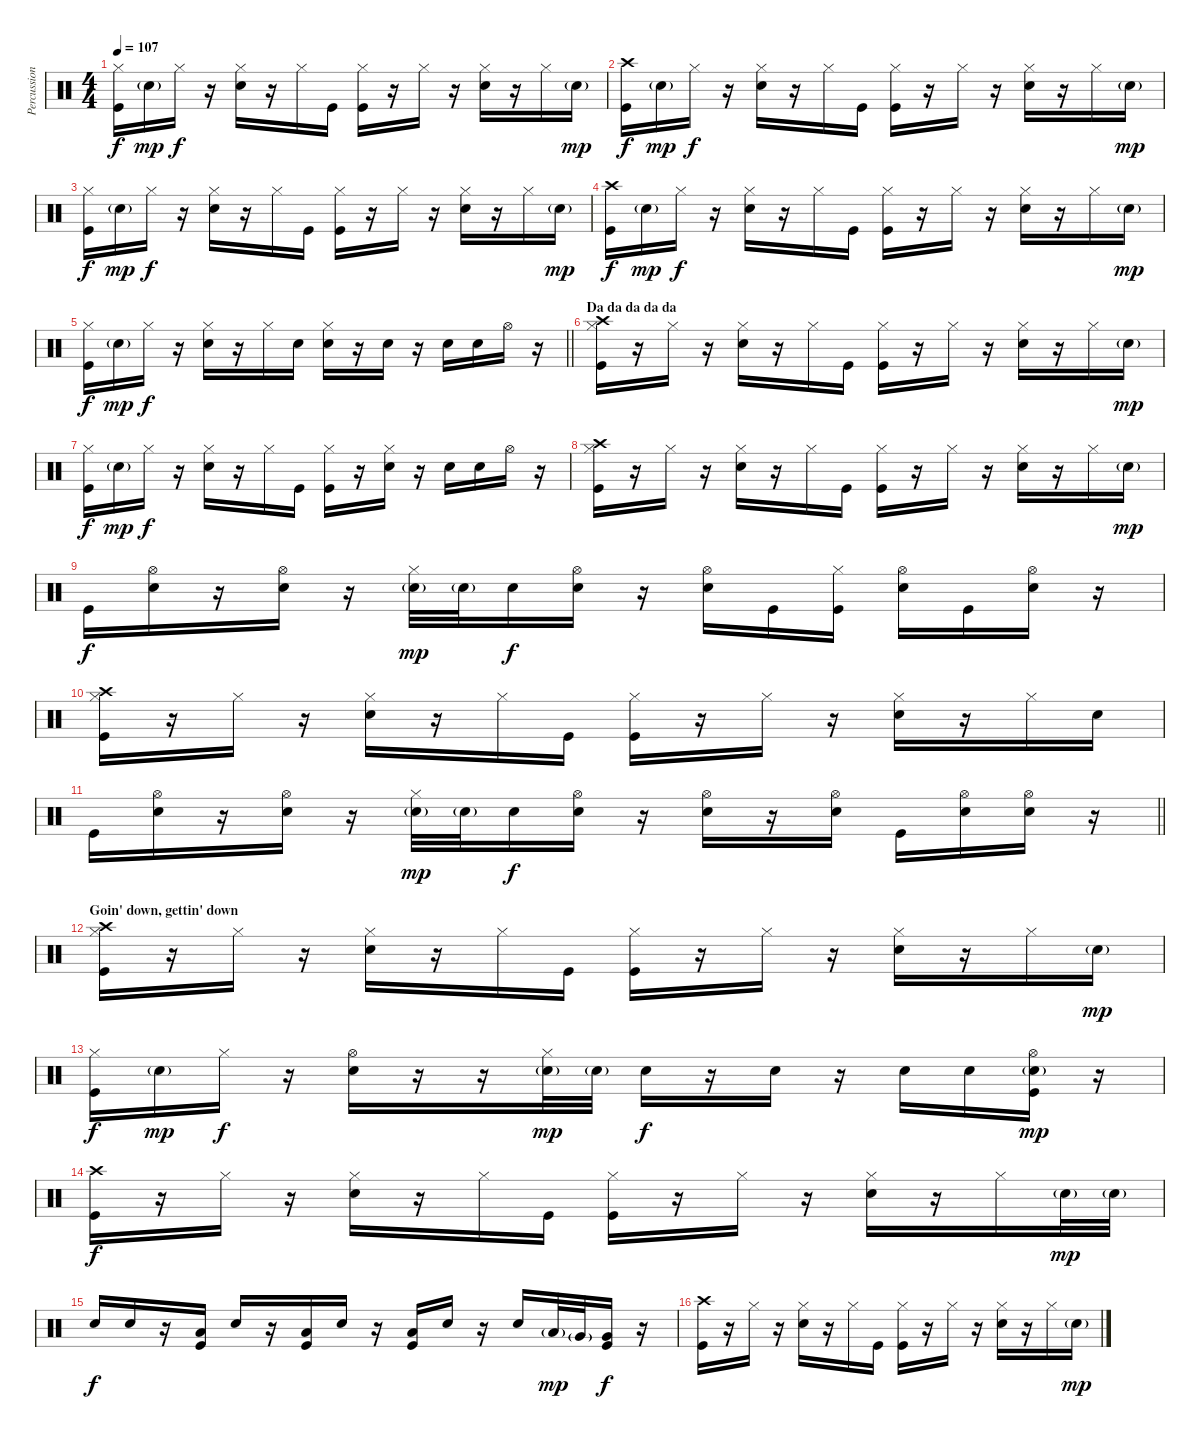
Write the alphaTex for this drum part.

\track ("Percussion" "Percussion") {instrument percussion}
\staff {score}
\articulation defaults
\ts (4 4)
\tempo 107
\clef neutral
\ks c
("Hi-Hat (closed)" "Kick (hit)").16{dy f} "Snare (hit) 2"{g}.16{dy mp} "Hi-Hat (closed)".16{dy f} r.16 ("Hi-Hat (closed)" "Snare (hit) 2").16 r.16 "Hi-Hat (closed)".16 "Kick (hit)".16 ("Hi-Hat (closed)" "Kick (hit)").16 r.16 "Hi-Hat (closed)".16 r.16 ("Hi-Hat (closed)" "Snare (hit) 2").16 r.16 "Hi-Hat (closed)".16 "Snare (hit) 2"{g}.16{dy mp} |
("Crash high (hit)" "Kick (hit)").16{dy f} "Snare (hit) 2"{g}.16{dy mp} "Hi-Hat (closed)".16{dy f} r.16 ("Hi-Hat (closed)" "Snare (hit) 2").16 r.16 "Hi-Hat (closed)".16 "Kick (hit)".16 ("Hi-Hat (closed)" "Kick (hit)").16 r.16 "Hi-Hat (closed)".16 r.16 ("Hi-Hat (closed)" "Snare (hit) 2").16 r.16 "Hi-Hat (closed)".16 "Snare (hit) 2"{g}.16{dy mp} |
("Hi-Hat (closed)" "Kick (hit)").16{dy f} "Snare (hit) 2"{g}.16{dy mp} "Hi-Hat (closed)".16{dy f} r.16 ("Hi-Hat (closed)" "Snare (hit) 2").16 r.16 "Hi-Hat (closed)".16 "Kick (hit)".16 ("Hi-Hat (closed)" "Kick (hit)").16 r.16 "Hi-Hat (closed)".16 r.16 ("Hi-Hat (closed)" "Snare (hit) 2").16 r.16 "Hi-Hat (closed)".16 "Snare (hit) 2"{g}.16{dy mp} |
("Crash high (hit)" "Kick (hit)").16{dy f} "Snare (hit) 2"{g}.16{dy mp} "Hi-Hat (closed)".16{dy f} r.16 ("Hi-Hat (closed)" "Snare (hit) 2").16 r.16 "Hi-Hat (closed)".16 "Kick (hit)".16 ("Hi-Hat (closed)" "Kick (hit)").16 r.16 "Hi-Hat (closed)".16 r.16 ("Hi-Hat (closed)" "Snare (hit) 2").16 r.16 "Hi-Hat (closed)".16 "Snare (hit) 2"{g}.16{dy mp} |
\barLineRight lightlight
("Hi-Hat (closed)" "Kick (hit)").16{dy f} "Snare (hit) 2"{g}.16{dy mp} "Hi-Hat (closed)".16{dy f} r.16 ("Hi-Hat (closed)" "Snare (hit) 2").16 r.16 "Hi-Hat (closed)".16 "Snare (hit) 2".16 ("Hi-Hat (closed)" "Snare (hit) 2").16 r.16 "Snare (hit) 2".16 r.16 "Snare (hit) 2".16 "Snare (hit) 2".16 "Hi-Hat (open)".16 r.16 |
\section ("" "Da da da da da")
("Crash high (hit)" "Hi-Hat (closed)" "Kick (hit)").16 r.16 "Hi-Hat (closed)".16 r.16 ("Hi-Hat (closed)" "Snare (hit) 2").16 r.16 "Hi-Hat (closed)".16 "Kick (hit)".16 ("Hi-Hat (closed)" "Kick (hit)").16 r.16 "Hi-Hat (closed)".16 r.16 ("Hi-Hat (closed)" "Snare (hit) 2").16 r.16 "Hi-Hat (closed)".16 "Snare (hit) 2"{g}.16{dy mp} |
("Hi-Hat (closed)" "Kick (hit)").16{dy f} "Snare (hit) 2"{g}.16{dy mp} "Hi-Hat (closed)".16{dy f} r.16 ("Hi-Hat (closed)" "Snare (hit) 2").16 r.16 "Hi-Hat (closed)".16 "Kick (hit)".16 ("Hi-Hat (closed)" "Kick (hit)").16 r.16 ("Hi-Hat (closed)" "Snare (hit) 2").16 r.16 "Snare (hit) 2".16 "Snare (hit) 2".16 "Hi-Hat (open)".16 r.16 |
("Crash high (hit)" "Hi-Hat (closed)" "Kick (hit)").16 r.16 "Hi-Hat (closed)".16 r.16 ("Hi-Hat (closed)" "Snare (hit) 2").16 r.16 "Hi-Hat (closed)".16 "Kick (hit)".16 ("Hi-Hat (closed)" "Kick (hit)").16 r.16 "Hi-Hat (closed)".16 r.16 ("Hi-Hat (closed)" "Snare (hit) 2").16 r.16 "Hi-Hat (closed)".16 "Snare (hit) 2"{g}.16{dy mp} |
"Kick (hit)".16{dy f} ("Hi-Hat (open)" "Snare (hit) 2").16 r.16 ("Hi-Hat (open)" "Snare (hit) 2").16 r.16 ("Hi-Hat (closed)" "Snare (hit) 2"{g}).32{dy mp} "Snare (hit) 2"{g}.32 "Snare (hit) 2".16{dy f} ("Hi-Hat (open)" "Snare (hit) 2").16 r.16 ("Hi-Hat (open)" "Snare (hit) 2").16 "Kick (hit)".16 ("Hi-Hat (closed)" "Kick (hit)").16 ("Hi-Hat (open)" "Snare (hit) 2").16 "Kick (hit)".16 ("Hi-Hat (open)" "Snare (hit) 2").16 r.16 |
("Crash high (hit)" "Hi-Hat (closed)" "Kick (hit)").16 r.16 "Hi-Hat (closed)".16 r.16 ("Hi-Hat (closed)" "Snare (hit) 2").16 r.16 "Hi-Hat (closed)".16 "Kick (hit)".16 ("Hi-Hat (closed)" "Kick (hit)").16 r.16 "Hi-Hat (closed)".16 r.16 ("Hi-Hat (closed)" "Snare (hit) 2").16 r.16 "Hi-Hat (closed)".16 "Snare (hit) 2".16 |
\barLineRight lightlight "Kick (hit)".16
("Hi-Hat (open)" "Snare (hit) 2").16 r.16 ("Hi-Hat (open)" "Snare (hit) 2").16 r.16 ("Hi-Hat (closed)" "Snare (hit) 2"{g}).32{dy mp} "Snare (hit) 2"{g}.32 "Snare (hit) 2".16{dy f} ("Hi-Hat (open)" "Snare (hit) 2").16 r.16 ("Hi-Hat (open)" "Snare (hit) 2").16 r.16 ("Hi-Hat (open)" "Snare (hit) 2").16 "Kick (hit)".16 ("Hi-Hat (open)" "Snare (hit) 2").16 ("Hi-Hat (open)" "Snare (hit) 2").16 r.16 |
\section ("" "Goin' down, gettin' down")
("Crash high (hit)" "Hi-Hat (closed)" "Kick (hit)").16 r.16 "Hi-Hat (closed)".16 r.16 ("Hi-Hat (closed)" "Snare (hit) 2").16 r.16 "Hi-Hat (closed)".16 "Kick (hit)".16 ("Hi-Hat (closed)" "Kick (hit)").16 r.16 "Hi-Hat (closed)".16 r.16 ("Hi-Hat (closed)" "Snare (hit) 2").16 r.16 "Hi-Hat (closed)".16 "Snare (hit) 2"{g}.16{dy mp} |
("Hi-Hat (closed)" "Kick (hit)").16{dy f} "Snare (hit) 2"{g}.16{dy mp} "Hi-Hat (closed)".16{dy f} r.16 ("Hi-Hat (open)" "Snare (hit) 2").16 r.16 r.16 ("Hi-Hat (closed)" "Snare (hit) 2"{g}).32{dy mp} "Snare (hit) 2"{g}.32 "Snare (hit) 2".16{dy f} r.16 "Snare (hit) 2".16 r.16 "Snare (hit) 2".16 "Snare (hit) 2".16 ("Hi-Hat (open)" "Snare (hit) 2"{g} "Kick (hit)").16{dy mp} r.16 |
("Crash high (hit)" "Kick (hit)").16{dy f} r.16 "Hi-Hat (closed)".16 r.16 ("Hi-Hat (closed)" "Snare (hit) 2").16 r.16 "Hi-Hat (closed)".16 "Kick (hit)".16 ("Hi-Hat (closed)" "Kick (hit)").16 r.16 "Hi-Hat (closed)".16 r.16 ("Hi-Hat (closed)" "Snare (hit) 2").16 r.16 "Hi-Hat (closed)".16 "Snare (hit) 2"{g}.32{dy mp} "Snare (hit) 2"{g}.32 |
"Snare (hit) 2".16{dy f} "Snare (hit) 2".16 r.16 ("Low Tom (hit)" "Kick (hit)").16 "Snare (hit) 2".16 r.16 ("Low Tom (hit)" "Kick (hit)").16 "Snare (hit) 2".16 r.16 ("Low Tom (hit)" "Kick (hit)").16 "Snare (hit) 2".16 r.16 "Snare (hit) 2".16 "Low Tom (hit)"{g}.32{dy mp} "Very Low Tom (hit)"{g}.32 ("Very Low Tom (hit)" "Kick (hit)").16{dy f} r.16 |
("Crash high (hit)" "Kick (hit)").16 r.16 "Hi-Hat (closed)".16 r.16 ("Hi-Hat (closed)" "Snare (hit) 2").16 r.16 "Hi-Hat (closed)".16 "Kick (hit)".16 ("Hi-Hat (closed)" "Kick (hit)").16 r.16 "Hi-Hat (closed)".16 r.16 ("Hi-Hat (closed)" "Snare (hit) 2").16 r.16 "Hi-Hat (closed)".16 "Snare (hit) 2"{g}.16{dy mp}
